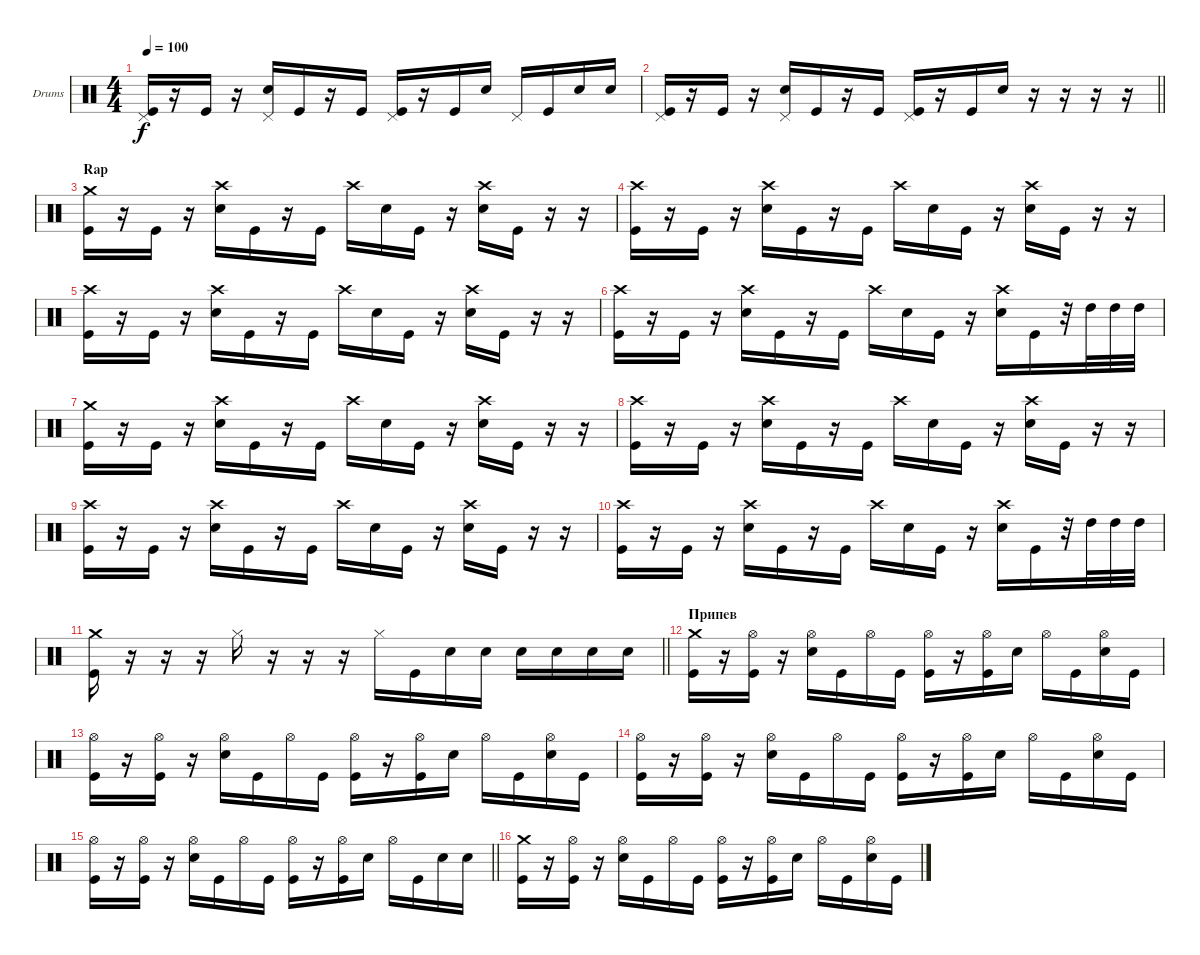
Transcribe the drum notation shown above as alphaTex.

\bracketExtendMode groupsimilarinstruments
\firstSystemTrackNameOrientation horizontal
\otherSystemsTrackNameOrientation horizontal
\track ("Drumkit" "Drums") {instrument percussion}
\staff {score}
\articulation defaults
\ts (4 4)
\tempo 100
\clef neutral
\ks c
("Pedal Hi-Hat (hit)" "Kick (hit)").16{dy f} r.16 "Kick (hit)".16 r.16 ("Pedal Hi-Hat (hit)" "Snare (hit) 2").16 "Kick (hit)".16 r.16 "Kick (hit)".16 ("Pedal Hi-Hat (hit)" "Kick (hit)").16 r.16 "Kick (hit)".16 "Snare (hit) 2".16 "Pedal Hi-Hat (hit)".16 "Kick (hit)".16 "Snare (hit) 2".16 "Snare (hit) 2".16 |
\barLineRight lightlight
("Pedal Hi-Hat (hit)" "Kick (hit)").16 r.16 "Kick (hit)".16 r.16 ("Pedal Hi-Hat (hit)" "Snare (hit) 2").16 "Kick (hit)".16 r.16 "Kick (hit)".16 ("Pedal Hi-Hat (hit)" "Kick (hit)").16 r.16 "Kick (hit)".16 "Snare (hit) 2".16 r.16 r.16 r.16 r.16 |
\section ("" "Rap")
("Crash medium (hit)" "Kick (hit)").16 r.16 "Kick (hit)".16 r.16 ("Crash high (hit)" "Snare (hit) 2").16 "Kick (hit)".16 r.16 "Kick (hit)".16 "Crash high (hit)".16 "Snare (hit) 2".16 "Kick (hit)".16 r.16 ("Crash high (hit)" "Snare (hit) 2").16 "Kick (hit)".16 r.16 r.16 |
("Crash high (hit)" "Kick (hit)").16 r.16 "Kick (hit)".16 r.16 ("Crash high (hit)" "Snare (hit) 2").16 "Kick (hit)".16 r.16 "Kick (hit)".16 "Crash high (hit)".16 "Snare (hit) 2".16 "Kick (hit)".16 r.16 ("Crash high (hit)" "Snare (hit) 2").16 "Kick (hit)".16 r.16 r.16 |
("Crash high (hit)" "Kick (hit)").16 r.16 "Kick (hit)".16 r.16 ("Crash high (hit)" "Snare (hit) 2").16 "Kick (hit)".16 r.16 "Kick (hit)".16 "Crash high (hit)".16 "Snare (hit) 2".16 "Kick (hit)".16 r.16 ("Crash high (hit)" "Snare (hit) 2").16 "Kick (hit)".16 r.16 r.16 |
("Crash high (hit)" "Kick (hit)").16 r.16 "Kick (hit)".16 r.16 ("Crash high (hit)" "Snare (hit) 2").16 "Kick (hit)".16 r.16 "Kick (hit)".16 "Crash high (hit)".16 "Snare (hit) 2".16 "Kick (hit)".16 r.16 ("Crash high (hit)" "Snare (hit) 2").16 "Kick (hit)".16 r.32 "High Tom (hit)".32 "High Tom (hit)".32 "High Tom (hit)".32 |
("Crash medium (hit)" "Kick (hit)").16 r.16 "Kick (hit)".16 r.16 ("Crash high (hit)" "Snare (hit) 2").16 "Kick (hit)".16 r.16 "Kick (hit)".16 "Crash high (hit)".16 "Snare (hit) 2".16 "Kick (hit)".16 r.16 ("Crash high (hit)" "Snare (hit) 2").16 "Kick (hit)".16 r.16 r.16 |
("Crash high (hit)" "Kick (hit)").16 r.16 "Kick (hit)".16 r.16 ("Crash high (hit)" "Snare (hit) 2").16 "Kick (hit)".16 r.16 "Kick (hit)".16 "Crash high (hit)".16 "Snare (hit) 2".16 "Kick (hit)".16 r.16 ("Crash high (hit)" "Snare (hit) 2").16 "Kick (hit)".16 r.16 r.16 |
("Crash high (hit)" "Kick (hit)").16 r.16 "Kick (hit)".16 r.16 ("Crash high (hit)" "Snare (hit) 2").16 "Kick (hit)".16 r.16 "Kick (hit)".16 "Crash high (hit)".16 "Snare (hit) 2".16 "Kick (hit)".16 r.16 ("Crash high (hit)" "Snare (hit) 2").16 "Kick (hit)".16 r.16 r.16 |
("Crash high (hit)" "Kick (hit)").16 r.16 "Kick (hit)".16 r.16 ("Crash high (hit)" "Snare (hit) 2").16 "Kick (hit)".16 r.16 "Kick (hit)".16 "Crash high (hit)".16 "Snare (hit) 2".16 "Kick (hit)".16 r.16 ("Crash high (hit)" "Snare (hit) 2").16 "Kick (hit)".16 r.32 "High Tom (hit)".32 "High Tom (hit)".32 "High Tom (hit)".32 |
\barLineRight lightlight
("Crash medium (hit)" "Kick (hit)").16 r.16 r.16 r.16 "Hi-Hat (closed)".16 r.16 r.16 r.16 "Hi-Hat (closed)".16 "Kick (hit)".16 "Snare (hit) 2".16 "Snare (hit) 2".16 "Snare (hit) 2".16 "Snare (hit) 2".16 "Snare (hit) 2".16 "Snare (hit) 2".16 |
\section ("" "Припев")
("Crash medium (hit)" "Kick (hit)").16 r.16 ("Hi-Hat (open)" "Kick (hit)").16 r.16 ("Hi-Hat (open)" "Snare (hit) 2").16 "Kick (hit)".16 "Hi-Hat (open)".16 "Kick (hit)".16 ("Hi-Hat (open)" "Kick (hit)").16 r.16 ("Hi-Hat (open)" "Kick (hit)").16 "Snare (hit) 2".16 "Hi-Hat (open)".16 "Kick (hit)".16 ("Hi-Hat (open)" "Snare (hit) 2").16 "Kick (hit)".16 |
("Hi-Hat (open)" "Kick (hit)").16 r.16 ("Hi-Hat (open)" "Kick (hit)").16 r.16 ("Hi-Hat (open)" "Snare (hit) 2").16 "Kick (hit)".16 "Hi-Hat (open)".16 "Kick (hit)".16 ("Hi-Hat (open)" "Kick (hit)").16 r.16 ("Hi-Hat (open)" "Kick (hit)").16 "Snare (hit) 2".16 "Hi-Hat (open)".16 "Kick (hit)".16 ("Hi-Hat (open)" "Snare (hit) 2").16 "Kick (hit)".16 |
("Hi-Hat (open)" "Kick (hit)").16 r.16 ("Hi-Hat (open)" "Kick (hit)").16 r.16 ("Hi-Hat (open)" "Snare (hit) 2").16 "Kick (hit)".16 "Hi-Hat (open)".16 "Kick (hit)".16 ("Hi-Hat (open)" "Kick (hit)").16 r.16 ("Hi-Hat (open)" "Kick (hit)").16 "Snare (hit) 2".16 "Hi-Hat (open)".16 "Kick (hit)".16 ("Hi-Hat (open)" "Snare (hit) 2").16 "Kick (hit)".16 |
\barLineRight lightlight
("Hi-Hat (open)" "Kick (hit)").16 r.16 ("Hi-Hat (open)" "Kick (hit)").16 r.16 ("Hi-Hat (open)" "Snare (hit) 2").16 "Kick (hit)".16 "Hi-Hat (open)".16 "Kick (hit)".16 ("Hi-Hat (open)" "Kick (hit)").16 r.16 ("Hi-Hat (open)" "Kick (hit)").16 "Snare (hit) 2".16 "Hi-Hat (open)".16 "Kick (hit)".16 "Snare (hit) 2".16 "Snare (hit) 2".16 |
("Crash medium (hit)" "Kick (hit)").16 r.16 ("Hi-Hat (open)" "Kick (hit)").16 r.16 ("Hi-Hat (open)" "Snare (hit) 2").16 "Kick (hit)".16 "Hi-Hat (open)".16 "Kick (hit)".16 ("Hi-Hat (open)" "Kick (hit)").16 r.16 ("Hi-Hat (open)" "Kick (hit)").16 "Snare (hit) 2".16 "Hi-Hat (open)".16 "Kick (hit)".16 ("Hi-Hat (open)" "Snare (hit) 2").16 "Kick (hit)".16
